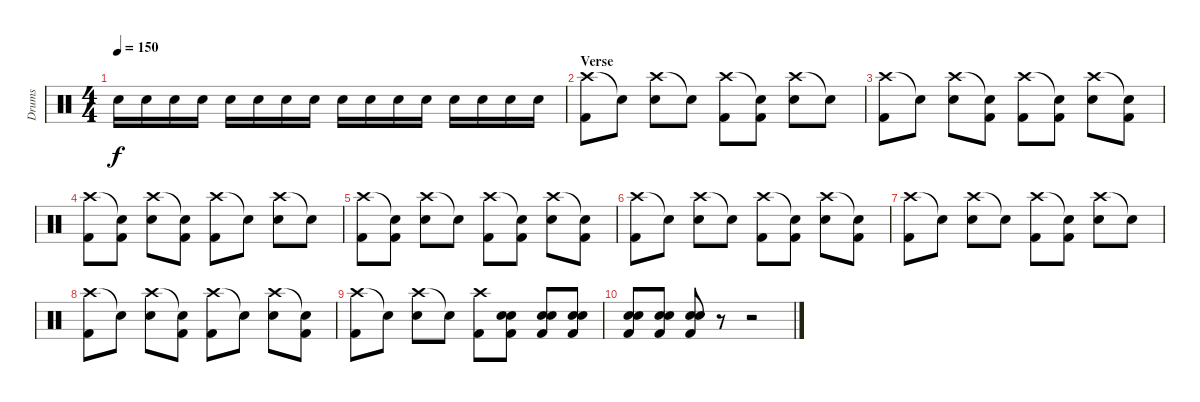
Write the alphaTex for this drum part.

\track ("Drums" "Drums") {instrument percussion}
\staff {score}
\articulation defaults
\ts (4 4)
\tempo 150
\clef neutral
\ks c "Electric Snare (hit)".16{dy f} "Electric Snare (hit)".16 "Electric Snare (hit)".16 "Electric Snare (hit)".16 "Electric Snare (hit)".16 "Electric Snare (hit)".16 "Electric Snare (hit)".16 "Electric Snare (hit)".16 "Electric Snare (hit)".16 "Electric Snare (hit)".16 "Electric Snare (hit)".16 "Electric Snare (hit)".16 "Electric Snare (hit)".16 "Electric Snare (hit)".16 "Electric Snare (hit)".16 "Electric Snare (hit)".16
|
\section ("" "Verse")
("Crash high (hit)" "Kick (hit) 2").8 "Snare (hit)"{t}.8 ("Crash high (hit)" "Electric Snare (hit)").8 "Snare (hit)"{t}.8 ("Crash high (hit)" "Kick (hit) 2").8 ("Snare (hit)"{t} "Kick (hit) 2").8 ("Crash high (hit)" "Electric Snare (hit)").8 "Snare (hit)"{t}.8 |
("Crash high (hit)" "Kick (hit) 2").8 "Snare (hit)"{t}.8 ("Crash high (hit)" "Electric Snare (hit)").8 ("Snare (hit)"{t} "Kick (hit) 2").8 ("Crash high (hit)" "Kick (hit) 2").8 ("Snare (hit)"{t} "Kick (hit) 2").8 ("Crash high (hit)" "Electric Snare (hit)").8 ("Snare (hit)"{t} "Kick (hit) 2").8 |
("Crash high (hit)" "Kick (hit) 2").8 ("Snare (hit)"{t} "Kick (hit) 2").8 ("Crash high (hit)" "Electric Snare (hit)").8 ("Snare (hit)"{t} "Kick (hit) 2").8 ("Crash high (hit)" "Kick (hit) 2").8 "Snare (hit)"{t}.8 ("Crash high (hit)" "Electric Snare (hit)").8 "Snare (hit)"{t}.8 |
("Crash high (hit)" "Kick (hit) 2").8 ("Snare (hit)"{t} "Kick (hit) 2").8 ("Crash high (hit)" "Electric Snare (hit)").8 "Snare (hit)"{t}.8 ("Crash high (hit)" "Kick (hit) 2").8 ("Snare (hit)"{t} "Kick (hit) 2").8 ("Crash high (hit)" "Electric Snare (hit)").8 ("Snare (hit)"{t} "Kick (hit) 2").8 |
("Crash high (hit)" "Kick (hit) 2").8 "Snare (hit)"{t}.8 ("Crash high (hit)" "Electric Snare (hit)").8 "Snare (hit)"{t}.8 ("Crash high (hit)" "Kick (hit) 2").8 ("Snare (hit)"{t} "Kick (hit) 2").8 ("Crash high (hit)" "Electric Snare (hit)").8 ("Snare (hit)"{t} "Kick (hit) 2").8 |
("Crash high (hit)" "Kick (hit) 2").8 "Snare (hit)"{t}.8 ("Crash high (hit)" "Electric Snare (hit)").8 "Snare (hit)"{t}.8 ("Crash high (hit)" "Kick (hit) 2").8 ("Snare (hit)"{t} "Kick (hit) 2").8 ("Crash high (hit)" "Electric Snare (hit)").8 "Snare (hit)"{t}.8 |
("Crash high (hit)" "Kick (hit) 2").8 "Snare (hit)"{t}.8 ("Crash high (hit)" "Electric Snare (hit)").8 ("Snare (hit)"{t} "Kick (hit) 2").8 ("Crash high (hit)" "Kick (hit) 2").8 "Snare (hit)"{t}.8 ("Crash high (hit)" "Electric Snare (hit)").8 ("Snare (hit)"{t} "Kick (hit) 2").8 |
("Crash high (hit)" "Kick (hit) 2").8 "Snare (hit)"{t}.8 ("Crash high (hit)" "Electric Snare (hit)").8 "Snare (hit)"{t}.8 ("Crash high (hit)" "Kick (hit) 2").8 ("Kick (hit) 2" "Electric Snare (hit)" "Electric Snare (hit)").8 ("Kick (hit) 2" "Electric Snare (hit)" "Electric Snare (hit)").8 ("Kick (hit) 2" "Electric Snare (hit)" "Electric Snare (hit)").8 |
("Kick (hit) 2" "Electric Snare (hit)" "Electric Snare (hit)").8 ("Kick (hit) 2" "Electric Snare (hit)" "Electric Snare (hit)").8 ("Kick (hit) 2" "Electric Snare (hit)" "Electric Snare (hit)").8 r.8 r.2
